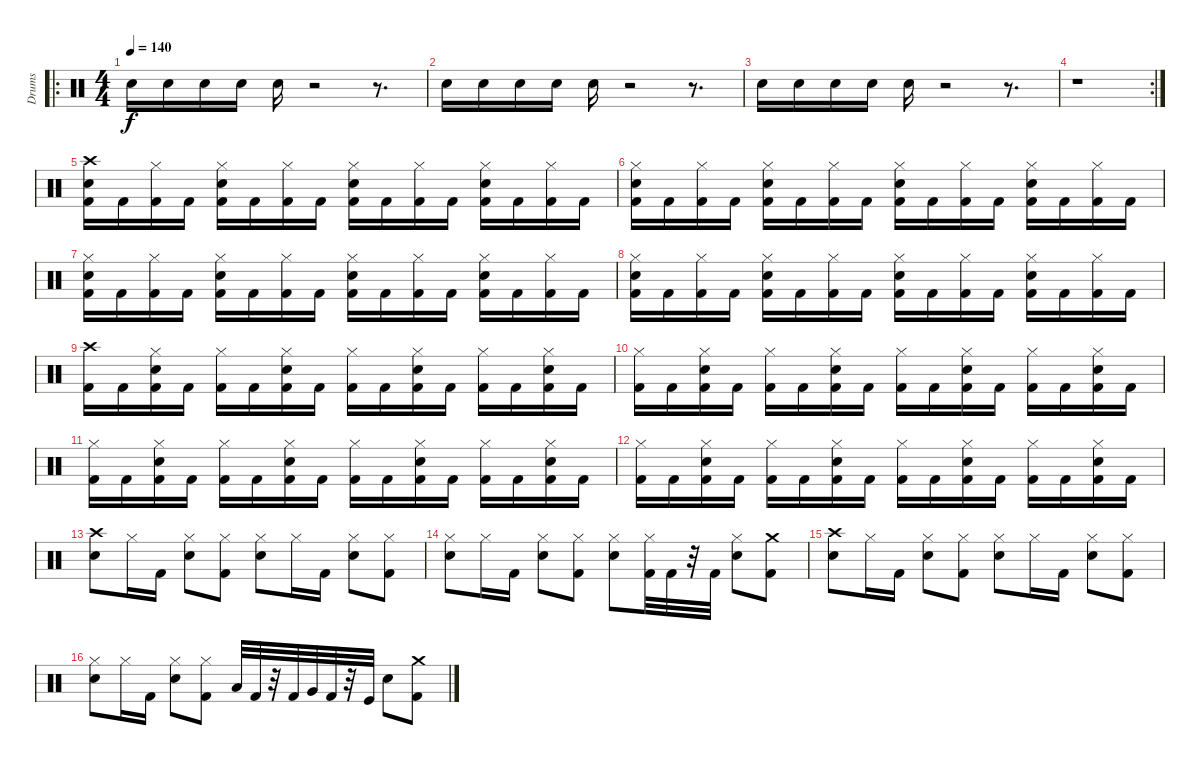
\track ("Drums" "Drums") {instrument percussion}
\staff {score}
\articulation defaults
\ro
\ts (4 4)
\tempo 140
\clef neutral
\ks c "Snare (hit) 2".16{dy f} "Snare (hit) 2".16 "Snare (hit) 2".16 "Snare (hit) 2".16 "Snare (hit) 2".16
r.2 r.8{d} |
"Snare (hit) 2".16 "Snare (hit) 2".16 "Snare (hit) 2".16 "Snare (hit) 2".16 "Snare (hit) 2".16 r.2 r.8{d} |
"Snare (hit) 2".16 "Snare (hit) 2".16 "Snare (hit) 2".16 "Snare (hit) 2".16 "Snare (hit) 2".16 r.2 r.8{d} |
\rc 2
r.1 |
("Kick (hit) 2" "Snare (hit) 2" "Crash high (hit)").16 "Kick (hit) 2".16 ("Kick (hit) 2" "Hi-Hat (closed)").16 "Kick (hit) 2".16 ("Kick (hit) 2" "Snare (hit) 2" "Hi-Hat (closed)").16 "Kick (hit) 2".16 ("Kick (hit) 2" "Hi-Hat (closed)").16 "Kick (hit) 2".16 ("Kick (hit) 2" "Snare (hit) 2" "Hi-Hat (closed)").16 "Kick (hit) 2".16 ("Kick (hit) 2" "Hi-Hat (closed)").16 "Kick (hit) 2".16 ("Kick (hit) 2" "Snare (hit) 2" "Hi-Hat (closed)").16 "Kick (hit) 2".16 ("Kick (hit) 2" "Hi-Hat (closed)").16 "Kick (hit) 2".16 |
("Kick (hit) 2" "Snare (hit) 2" "Hi-Hat (closed)").16 "Kick (hit) 2".16 ("Kick (hit) 2" "Hi-Hat (closed)").16 "Kick (hit) 2".16 ("Kick (hit) 2" "Snare (hit) 2" "Hi-Hat (closed)").16 "Kick (hit) 2".16 ("Kick (hit) 2" "Hi-Hat (closed)").16 "Kick (hit) 2".16 ("Kick (hit) 2" "Snare (hit) 2" "Hi-Hat (closed)").16 "Kick (hit) 2".16 ("Kick (hit) 2" "Hi-Hat (closed)").16 "Kick (hit) 2".16 ("Kick (hit) 2" "Snare (hit) 2" "Hi-Hat (closed)").16 "Kick (hit) 2".16 ("Kick (hit) 2" "Hi-Hat (closed)").16 "Kick (hit) 2".16 |
("Kick (hit) 2" "Snare (hit) 2" "Hi-Hat (closed)").16 "Kick (hit) 2".16 ("Kick (hit) 2" "Hi-Hat (closed)").16 "Kick (hit) 2".16 ("Kick (hit) 2" "Snare (hit) 2" "Hi-Hat (closed)").16 "Kick (hit) 2".16 ("Kick (hit) 2" "Hi-Hat (closed)").16 "Kick (hit) 2".16 ("Kick (hit) 2" "Snare (hit) 2" "Hi-Hat (closed)").16 "Kick (hit) 2".16 ("Kick (hit) 2" "Hi-Hat (closed)").16 "Kick (hit) 2".16 ("Kick (hit) 2" "Snare (hit) 2" "Hi-Hat (closed)").16 "Kick (hit) 2".16 ("Kick (hit) 2" "Hi-Hat (closed)").16 "Kick (hit) 2".16 |
("Kick (hit) 2" "Snare (hit) 2" "Hi-Hat (closed)").16 "Kick (hit) 2".16 ("Kick (hit) 2" "Hi-Hat (closed)").16 "Kick (hit) 2".16 ("Kick (hit) 2" "Snare (hit) 2" "Hi-Hat (closed)").16 "Kick (hit) 2".16 ("Kick (hit) 2" "Hi-Hat (closed)").16 "Kick (hit) 2".16 ("Kick (hit) 2" "Snare (hit) 2" "Hi-Hat (closed)").16 "Kick (hit) 2".16 ("Kick (hit) 2" "Hi-Hat (closed)").16 "Kick (hit) 2".16 ("Kick (hit) 2" "Snare (hit) 2" "Hi-Hat (closed)").16 "Kick (hit) 2".16 ("Kick (hit) 2" "Hi-Hat (closed)").16 "Kick (hit) 2".16 |
("Kick (hit) 2" "Crash high (hit)").16 "Kick (hit) 2".16 ("Kick (hit) 2" "Snare (hit) 2" "Hi-Hat (closed)").16 "Kick (hit) 2".16 ("Kick (hit) 2" "Hi-Hat (closed)").16 "Kick (hit) 2".16 ("Kick (hit) 2" "Snare (hit) 2" "Hi-Hat (closed)").16 "Kick (hit) 2".16 ("Kick (hit) 2" "Hi-Hat (closed)").16 "Kick (hit) 2".16 ("Kick (hit) 2" "Snare (hit) 2" "Hi-Hat (closed)").16 "Kick (hit) 2".16 ("Kick (hit) 2" "Hi-Hat (closed)").16 "Kick (hit) 2".16 ("Kick (hit) 2" "Snare (hit) 2" "Hi-Hat (closed)").16 "Kick (hit) 2".16 |
("Kick (hit) 2" "Hi-Hat (closed)").16 "Kick (hit) 2".16 ("Kick (hit) 2" "Snare (hit) 2" "Hi-Hat (closed)").16 "Kick (hit) 2".16 ("Kick (hit) 2" "Hi-Hat (closed)").16 "Kick (hit) 2".16 ("Kick (hit) 2" "Snare (hit) 2" "Hi-Hat (closed)").16 "Kick (hit) 2".16 ("Kick (hit) 2" "Hi-Hat (closed)").16 "Kick (hit) 2".16 ("Kick (hit) 2" "Snare (hit) 2" "Hi-Hat (closed)").16 "Kick (hit) 2".16 ("Kick (hit) 2" "Hi-Hat (closed)").16 "Kick (hit) 2".16 ("Kick (hit) 2" "Snare (hit) 2" "Hi-Hat (closed)").16 "Kick (hit) 2".16 |
("Kick (hit) 2" "Hi-Hat (closed)").16 "Kick (hit) 2".16 ("Kick (hit) 2" "Snare (hit) 2" "Hi-Hat (closed)").16 "Kick (hit) 2".16 ("Kick (hit) 2" "Hi-Hat (closed)").16 "Kick (hit) 2".16 ("Kick (hit) 2" "Snare (hit) 2" "Hi-Hat (closed)").16 "Kick (hit) 2".16 ("Kick (hit) 2" "Hi-Hat (closed)").16 "Kick (hit) 2".16 ("Kick (hit) 2" "Snare (hit) 2" "Hi-Hat (closed)").16 "Kick (hit) 2".16 ("Kick (hit) 2" "Hi-Hat (closed)").16 "Kick (hit) 2".16 ("Kick (hit) 2" "Snare (hit) 2" "Hi-Hat (closed)").16 "Kick (hit) 2".16 |
("Kick (hit) 2" "Hi-Hat (closed)").16 "Kick (hit) 2".16 ("Kick (hit) 2" "Snare (hit) 2" "Hi-Hat (closed)").16 "Kick (hit) 2".16 ("Kick (hit) 2" "Hi-Hat (closed)").16 "Kick (hit) 2".16 ("Kick (hit) 2" "Snare (hit) 2" "Hi-Hat (closed)").16 "Kick (hit) 2".16 ("Kick (hit) 2" "Hi-Hat (closed)").16 "Kick (hit) 2".16 ("Kick (hit) 2" "Snare (hit) 2" "Hi-Hat (closed)").16 "Kick (hit) 2".16 ("Kick (hit) 2" "Hi-Hat (closed)").16 "Kick (hit) 2".16 ("Kick (hit) 2" "Snare (hit) 2" "Hi-Hat (closed)").16 "Kick (hit) 2".16 |
("Snare (hit) 2" "Crash high (hit)").8 "Hi-Hat (closed)".16 "Kick (hit) 2".16 ("Snare (hit) 2" "Hi-Hat (closed)").8 ("Kick (hit) 2" "Hi-Hat (closed)").8 ("Snare (hit) 2" "Hi-Hat (closed)").8 "Hi-Hat (closed)".16 "Kick (hit) 2".16 ("Snare (hit) 2" "Hi-Hat (closed)").8 ("Kick (hit) 2" "Hi-Hat (closed)").8 |
("Snare (hit) 2" "Hi-Hat (closed)").8 "Hi-Hat (closed)".16 "Kick (hit) 2".16 ("Snare (hit) 2" "Hi-Hat (closed)").8 ("Kick (hit) 2" "Hi-Hat (closed)").8 ("Snare (hit) 2" "Hi-Hat (closed)").8 ("Kick (hit) 2" "Hi-Hat (closed)").32 "Kick (hit) 2".32 r.32 "Kick (hit) 2".32 ("Snare (hit) 2" "Hi-Hat (closed)").8 ("Kick (hit) 2" "Crash medium (hit)").8 |
("Snare (hit) 2" "Crash high (hit)").8 "Hi-Hat (closed)".16 "Kick (hit) 2".16 ("Snare (hit) 2" "Hi-Hat (closed)").8 ("Kick (hit) 2" "Hi-Hat (closed)").8 ("Snare (hit) 2" "Hi-Hat (closed)").8 "Hi-Hat (closed)".16 "Kick (hit) 2".16 ("Snare (hit) 2" "Hi-Hat (closed)").8 ("Kick (hit) 2" "Hi-Hat (closed)").8 |
("Snare (hit) 2" "Hi-Hat (closed)").8 "Hi-Hat (closed)".16 "Kick (hit) 2".16 ("Snare (hit) 2" "Hi-Hat (closed)").8 ("Kick (hit) 2" "Hi-Hat (closed)").8 "Low Tom (hit)".32 "Kick (hit) 2".32 r.32 "Kick (hit) 2".32 "Very Low Tom (hit)".32 "Kick (hit) 2".32 r.32 "Kick (hit)".32 "Snare (hit) 2".8 ("Kick (hit) 2" "Crash medium (hit)").8
